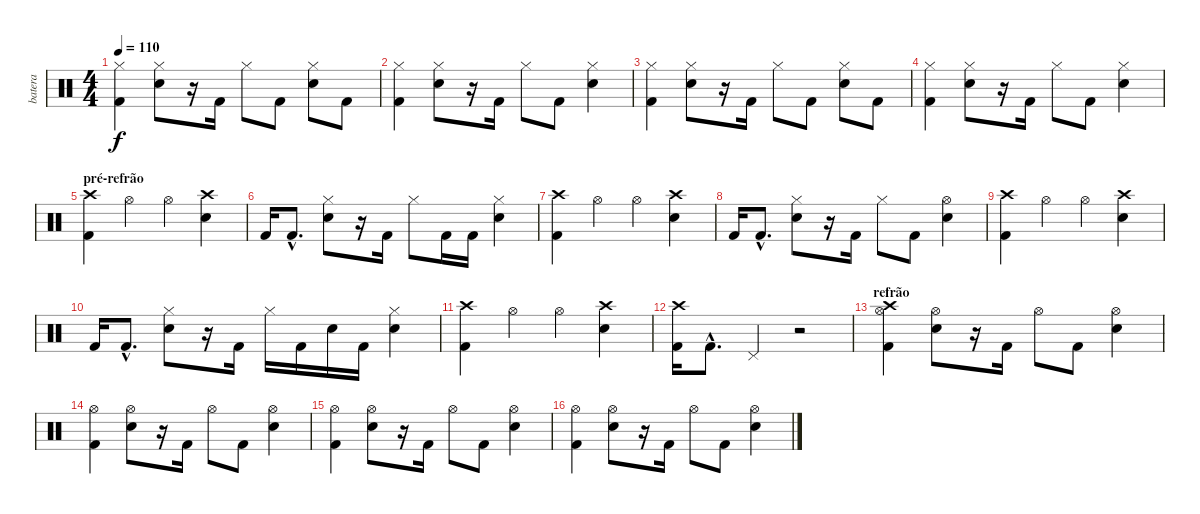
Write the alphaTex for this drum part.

\track ("batera" "batera") {instrument percussion}
\staff {score}
\articulation defaults
\ts (4 4)
\tempo 110
\clef neutral
\ks c
("Kick (hit) 2" "Hi-Hat (closed)").4{dy f} ("Snare (hit) 2" "Hi-Hat (closed)").8 r.16 "Kick (hit) 2".16 "Hi-Hat (closed)".8 "Kick (hit) 2".8 ("Snare (hit) 2" "Hi-Hat (closed)").8 "Kick (hit) 2".8 |
("Kick (hit) 2" "Hi-Hat (closed)").4 ("Snare (hit) 2" "Hi-Hat (closed)").8 r.16 "Kick (hit) 2".16 "Hi-Hat (closed)".8 "Kick (hit) 2".8 ("Snare (hit) 2" "Hi-Hat (closed)").4 |
("Kick (hit) 2" "Hi-Hat (closed)").4 ("Snare (hit) 2" "Hi-Hat (closed)").8 r.16 "Kick (hit) 2".16 "Hi-Hat (closed)".8 "Kick (hit) 2".8 ("Snare (hit) 2" "Hi-Hat (closed)").8 "Kick (hit) 2".8 |
("Kick (hit) 2" "Hi-Hat (closed)").4 ("Snare (hit) 2" "Hi-Hat (closed)").8 r.16 "Kick (hit) 2".16 "Hi-Hat (closed)".8 "Kick (hit) 2".8 ("Snare (hit) 2" "Hi-Hat (closed)").4 |
\section ("" "pré-refrão")
("Crash high (hit)" "Kick (hit) 2").4 "Hi-Hat (open)".4 "Hi-Hat (open)".4 ("Crash high (hit)" "Snare (hit) 2").4 |
"Kick (hit) 2".16 "Kick (hit) 2"{hac}.8{d} ("Snare (hit) 2" "Hi-Hat (closed)").8 r.16 "Kick (hit) 2".16 "Hi-Hat (closed)".8 "Kick (hit) 2".16 "Kick (hit) 2".16 ("Snare (hit) 2" "Hi-Hat (closed)").4 |
("Crash high (hit)" "Kick (hit) 2").4 "Hi-Hat (open)".4 "Hi-Hat (open)".4 ("Crash high (hit)" "Snare (hit) 2").4 |
"Kick (hit) 2".16 "Kick (hit) 2"{hac}.8{d} ("Snare (hit) 2" "Hi-Hat (closed)").8 r.16 "Kick (hit) 2".16 "Hi-Hat (closed)".8 "Kick (hit) 2".8 ("Snare (hit) 2" "Hi-Hat (open)").4 |
("Crash high (hit)" "Kick (hit) 2").4 "Hi-Hat (open)".4 "Hi-Hat (open)".4 ("Crash high (hit)" "Snare (hit) 2").4 |
"Kick (hit) 2".16 "Kick (hit) 2"{hac}.8{d} ("Snare (hit) 2" "Hi-Hat (closed)").8 r.16 "Kick (hit) 2".16 "Hi-Hat (closed)".16 "Kick (hit) 2".16 "Snare (hit) 2".16 "Kick (hit) 2".16 ("Snare (hit) 2" "Hi-Hat (closed)").4 |
("Crash high (hit)" "Kick (hit) 2").4 "Hi-Hat (open)".4 "Hi-Hat (open)".4 ("Crash high (hit)" "Snare (hit) 2").4 |
("Crash high (hit)" "Kick (hit) 2").16 "Kick (hit) 2"{hac}.8{d} "Pedal Hi-Hat (hit)".4 r.2 |
\section ("" "refrão")
("Crash high (hit)" "Kick (hit) 2" "Hi-Hat (open)").4 ("Snare (hit) 2" "Hi-Hat (open)").8 r.16 "Kick (hit) 2".16 "Hi-Hat (open)".8 "Kick (hit) 2".8 ("Snare (hit) 2" "Hi-Hat (open)").4 |
("Kick (hit) 2" "Hi-Hat (open)").4 ("Snare (hit) 2" "Hi-Hat (open)").8 r.16 "Kick (hit) 2".16 "Hi-Hat (open)".8 "Kick (hit) 2".8 ("Snare (hit) 2" "Hi-Hat (open)").4 |
("Kick (hit) 2" "Hi-Hat (open)").4 ("Snare (hit) 2" "Hi-Hat (open)").8 r.16 "Kick (hit) 2".16 "Hi-Hat (open)".8 "Kick (hit) 2".8 ("Snare (hit) 2" "Hi-Hat (open)").4 |
("Kick (hit) 2" "Hi-Hat (open)").4 ("Snare (hit) 2" "Hi-Hat (open)").8 r.16 "Kick (hit) 2".16 "Hi-Hat (open)".8 "Kick (hit) 2".8 ("Snare (hit) 2" "Hi-Hat (open)").4
